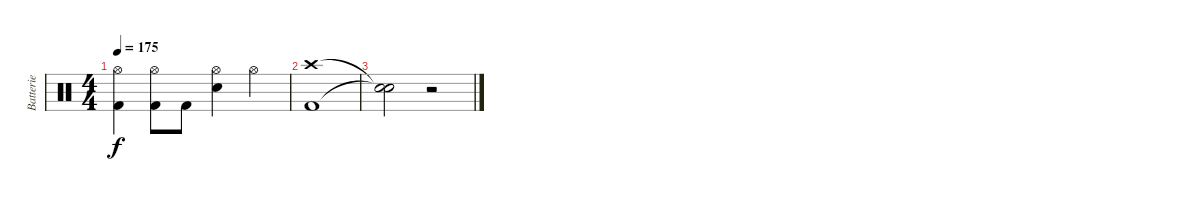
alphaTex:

\track ("Batterie" "Batterie") {instrument percussion}
\staff {score}
\articulation defaults
\ts (4 4)
\tempo 175
\clef neutral
\ks c
("Hi-Hat (open)" "Kick (hit) 2").4{dy f} ("Hi-Hat (open)" "Kick (hit) 2").8 "Kick (hit) 2".8 ("Hi-Hat (open)" "Electric Snare (hit)").4 "Hi-Hat (open)".4 |
("Crash high (hit)" "Kick (hit) 2").1 |
("Snare (hit)"{t} "Snare (hit)"{t}).2 r.2
